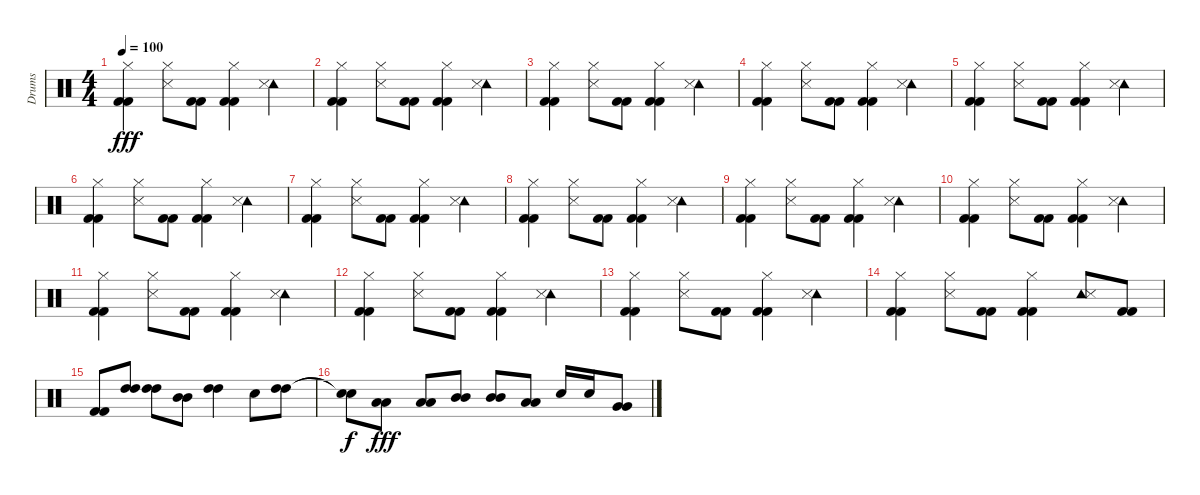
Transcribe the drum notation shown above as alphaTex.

\track ("Drums" "Drums") {instrument percussion}
\staff {score}
\articulation defaults
\ts (4 4)
\tempo 100
\clef neutral
\ks c
("Hi-Hat (closed)" "Kick (hit) 2" "Kick (hit) 2").4{dy fff} ("Hi-Hat (closed)" "Snare (side stick) 3").8 ("Kick (hit) 2" "Kick (hit) 2").8 ("Hi-Hat (closed)" "Kick (hit) 2" "Kick (hit) 2").4 ("Tambourine (hit)" "Snare (side stick) 3").4 |
("Hi-Hat (closed)" "Kick (hit) 2" "Kick (hit) 2").4 ("Hi-Hat (closed)" "Snare (side stick) 3").8 ("Kick (hit) 2" "Kick (hit) 2").8 ("Hi-Hat (closed)" "Kick (hit) 2" "Kick (hit) 2").4 ("Tambourine (hit)" "Snare (side stick) 3").4 |
("Hi-Hat (closed)" "Kick (hit) 2" "Kick (hit) 2").4 ("Hi-Hat (closed)" "Snare (side stick) 3").8 ("Kick (hit) 2" "Kick (hit) 2").8 ("Hi-Hat (closed)" "Kick (hit) 2" "Kick (hit) 2").4 ("Tambourine (hit)" "Snare (side stick) 3").4 |
("Hi-Hat (closed)" "Kick (hit) 2" "Kick (hit) 2").4 ("Hi-Hat (closed)" "Snare (side stick) 3").8 ("Kick (hit) 2" "Kick (hit) 2").8 ("Hi-Hat (closed)" "Kick (hit) 2" "Kick (hit) 2").4 ("Tambourine (hit)" "Snare (side stick) 3").4 |
("Hi-Hat (closed)" "Kick (hit) 2" "Kick (hit) 2").4 ("Hi-Hat (closed)" "Snare (side stick) 3").8 ("Kick (hit) 2" "Kick (hit) 2").8 ("Hi-Hat (closed)" "Kick (hit) 2" "Kick (hit) 2").4 ("Tambourine (hit)" "Snare (side stick) 3").4 |
("Hi-Hat (closed)" "Kick (hit) 2" "Kick (hit) 2").4 ("Hi-Hat (closed)" "Snare (side stick) 3").8 ("Kick (hit) 2" "Kick (hit) 2").8 ("Hi-Hat (closed)" "Kick (hit) 2" "Kick (hit) 2").4 ("Tambourine (hit)" "Snare (side stick) 3").4 |
("Hi-Hat (closed)" "Kick (hit) 2" "Kick (hit) 2").4 ("Hi-Hat (closed)" "Snare (side stick) 3").8 ("Kick (hit) 2" "Kick (hit) 2").8 ("Hi-Hat (closed)" "Kick (hit) 2" "Kick (hit) 2").4 ("Tambourine (hit)" "Snare (side stick) 3").4 |
("Hi-Hat (closed)" "Kick (hit) 2" "Kick (hit) 2").4 ("Hi-Hat (closed)" "Snare (side stick) 3").8 ("Kick (hit) 2" "Kick (hit) 2").8 ("Hi-Hat (closed)" "Kick (hit) 2" "Kick (hit) 2").4 ("Tambourine (hit)" "Snare (side stick) 3").4 |
("Hi-Hat (closed)" "Kick (hit) 2" "Kick (hit) 2").4 ("Hi-Hat (closed)" "Snare (side stick) 3").8 ("Kick (hit) 2" "Kick (hit) 2").8 ("Hi-Hat (closed)" "Kick (hit) 2" "Kick (hit) 2").4 ("Tambourine (hit)" "Snare (side stick) 3").4 |
("Hi-Hat (closed)" "Kick (hit) 2" "Kick (hit) 2").4 ("Hi-Hat (closed)" "Snare (side stick) 3").8 ("Kick (hit) 2" "Kick (hit) 2").8 ("Hi-Hat (closed)" "Kick (hit) 2" "Kick (hit) 2").4 ("Tambourine (hit)" "Snare (side stick) 3").4 |
("Hi-Hat (closed)" "Kick (hit) 2" "Kick (hit) 2").4 ("Hi-Hat (closed)" "Snare (side stick) 3").8 ("Kick (hit) 2" "Kick (hit) 2").8 ("Hi-Hat (closed)" "Kick (hit) 2" "Kick (hit) 2").4 ("Tambourine (hit)" "Snare (side stick) 3").4 |
("Hi-Hat (closed)" "Kick (hit) 2" "Kick (hit) 2").4 ("Hi-Hat (closed)" "Snare (side stick) 3").8 ("Kick (hit) 2" "Kick (hit) 2").8 ("Hi-Hat (closed)" "Kick (hit) 2" "Kick (hit) 2").4 ("Tambourine (hit)" "Snare (side stick) 3").4 |
("Hi-Hat (closed)" "Kick (hit) 2" "Kick (hit) 2").4 ("Hi-Hat (closed)" "Snare (side stick) 3").8 ("Kick (hit) 2" "Kick (hit) 2").8 ("Hi-Hat (closed)" "Kick (hit) 2" "Kick (hit) 2").4 ("Tambourine (hit)" "Snare (side stick) 3").4 |
("Hi-Hat (closed)" "Kick (hit) 2" "Kick (hit) 2").4 ("Hi-Hat (closed)" "Snare (side stick) 3").8 ("Kick (hit) 2" "Kick (hit) 2").8 ("Hi-Hat (closed)" "Kick (hit) 2" "Kick (hit) 2").4 ("Tambourine (hit)" "Snare (side stick) 3").8 ("Kick (hit) 2" "Kick (hit) 2").8 |
("Kick (hit) 2" "Kick (hit) 2").8 ("High Tom (hit)" "High Tom (hit)").8 ("High Tom (hit)" "High Tom (hit)").8 ("Mid Tom (hit)" "Mid Tom (hit)").8 ("High Tom (hit)" "High Tom (hit)").4 "Electric Snare (hit)".8 ("High Tom (hit)" "High Tom (hit)").8 |
("Snare (hit)"{t} "Snare (hit)"{t}).8{dy f} ("Low Tom (hit)" "Low Tom (hit)").8{dy fff} ("Low Tom (hit)" "Low Tom (hit)").8 ("Mid Tom (hit)" "Mid Tom (hit)").8 ("Mid Tom (hit)" "Mid Tom (hit)").8 ("Low Tom (hit)" "Low Tom (hit)").8 "Electric Snare (hit)".16 "Electric Snare (hit)".16 ("Very Low Tom (hit)" "Very Low Tom (hit)").8
